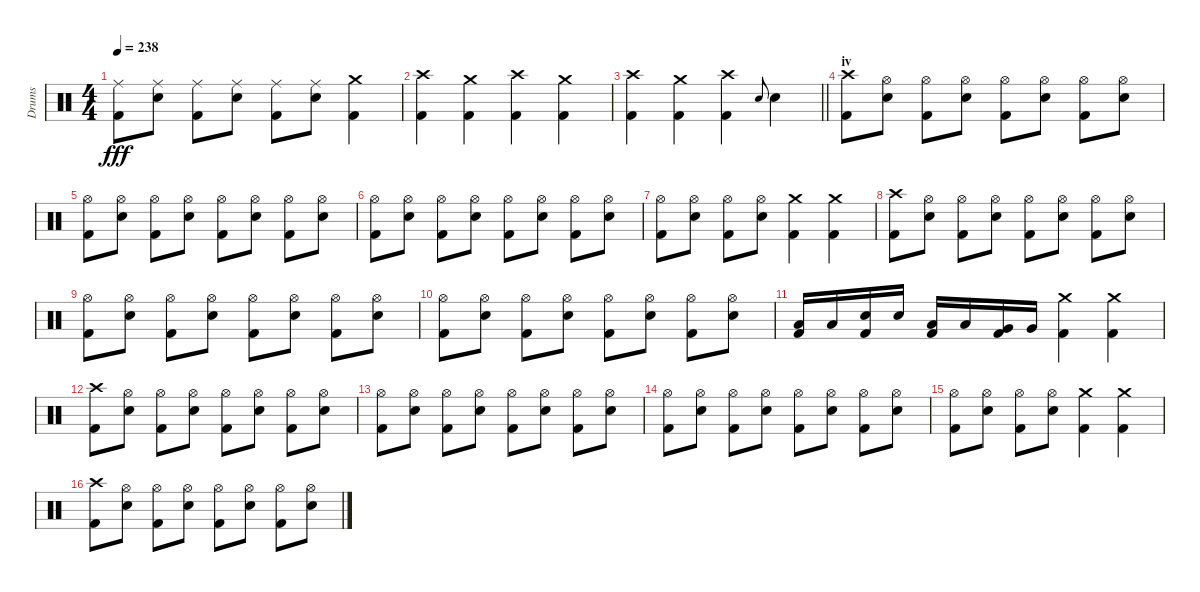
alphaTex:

\track ("Drums" "Drums") {instrument percussion}
\staff {score}
\articulation defaults
\ts (4 4)
\tempo 238
\clef neutral
\ks c
("Ride (middle)" "Kick (hit) 2").8{dy fff} ("Ride (middle)" "Electric Snare (hit)").8 ("Ride (middle)" "Kick (hit) 2").8 ("Ride (middle)" "Electric Snare (hit)").8 ("Ride (middle)" "Kick (hit) 2").8 ("Ride (middle)" "Electric Snare (hit)").8 ("Crash medium (hit)" "Kick (hit) 2").4 |
("Crash high (hit)" "Kick (hit) 2").4 ("Crash medium (hit)" "Kick (hit) 2").4 ("Crash high (hit)" "Kick (hit) 2").4 ("Crash medium (hit)" "Kick (hit) 2").4 |
\barLineRight lightlight
("Crash high (hit)" "Kick (hit) 2").4 ("Crash medium (hit)" "Kick (hit) 2").4 ("Crash high (hit)" "Kick (hit) 2").4 "Electric Snare (hit)".8{gr onbeat} "Electric Snare (hit)".4 |
\section ("" "iv")
("Crash high (hit)" "Kick (hit) 2").8 ("Hi-Hat (open)" "Electric Snare (hit)").8 ("Hi-Hat (open)" "Kick (hit) 2").8 ("Hi-Hat (open)" "Electric Snare (hit)").8 ("Hi-Hat (open)" "Kick (hit) 2").8 ("Hi-Hat (open)" "Electric Snare (hit)").8 ("Hi-Hat (open)" "Kick (hit) 2").8 ("Hi-Hat (open)" "Electric Snare (hit)").8 |
("Hi-Hat (open)" "Kick (hit) 2").8 ("Hi-Hat (open)" "Electric Snare (hit)").8 ("Hi-Hat (open)" "Kick (hit) 2").8 ("Hi-Hat (open)" "Electric Snare (hit)").8 ("Hi-Hat (open)" "Kick (hit) 2").8 ("Hi-Hat (open)" "Electric Snare (hit)").8 ("Hi-Hat (open)" "Kick (hit) 2").8 ("Hi-Hat (open)" "Electric Snare (hit)").8 |
("Hi-Hat (open)" "Kick (hit) 2").8 ("Hi-Hat (open)" "Electric Snare (hit)").8 ("Hi-Hat (open)" "Kick (hit) 2").8 ("Hi-Hat (open)" "Electric Snare (hit)").8 ("Hi-Hat (open)" "Kick (hit) 2").8 ("Hi-Hat (open)" "Electric Snare (hit)").8 ("Hi-Hat (open)" "Kick (hit) 2").8 ("Hi-Hat (open)" "Electric Snare (hit)").8 |
("Hi-Hat (open)" "Kick (hit) 2").8 ("Hi-Hat (open)" "Electric Snare (hit)").8 ("Hi-Hat (open)" "Kick (hit) 2").8 ("Hi-Hat (open)" "Electric Snare (hit)").8 ("Crash medium (hit)" "Kick (hit) 2").4 ("Crash medium (hit)" "Kick (hit) 2").4 |
("Crash high (hit)" "Kick (hit) 2").8 ("Hi-Hat (open)" "Electric Snare (hit)").8 ("Hi-Hat (open)" "Kick (hit) 2").8 ("Hi-Hat (open)" "Electric Snare (hit)").8 ("Hi-Hat (open)" "Kick (hit) 2").8 ("Hi-Hat (open)" "Electric Snare (hit)").8 ("Hi-Hat (open)" "Kick (hit) 2").8 ("Hi-Hat (open)" "Electric Snare (hit)").8 |
("Hi-Hat (open)" "Kick (hit) 2").8 ("Hi-Hat (open)" "Electric Snare (hit)").8 ("Hi-Hat (open)" "Kick (hit) 2").8 ("Hi-Hat (open)" "Electric Snare (hit)").8 ("Hi-Hat (open)" "Kick (hit) 2").8 ("Hi-Hat (open)" "Electric Snare (hit)").8 ("Hi-Hat (open)" "Kick (hit) 2").8 ("Hi-Hat (open)" "Electric Snare (hit)").8 |
("Hi-Hat (open)" "Kick (hit) 2").8 ("Hi-Hat (open)" "Electric Snare (hit)").8 ("Hi-Hat (open)" "Kick (hit) 2").8 ("Hi-Hat (open)" "Electric Snare (hit)").8 ("Hi-Hat (open)" "Kick (hit) 2").8 ("Hi-Hat (open)" "Electric Snare (hit)").8 ("Hi-Hat (open)" "Kick (hit) 2").8 ("Hi-Hat (open)" "Electric Snare (hit)").8 |
("Low Tom (hit)" "Kick (hit) 2").16 "Low Tom (hit)".16 ("Electric Snare (hit)" "Kick (hit) 2").16 "Electric Snare (hit)".16 ("Low Tom (hit)" "Kick (hit) 2").16 "Low Tom (hit)".16 ("Very Low Tom (hit)" "Kick (hit) 2").16 "Very Low Tom (hit)".16 ("Crash medium (hit)" "Kick (hit) 2").4 ("Crash medium (hit)" "Kick (hit) 2").4 |
("Crash high (hit)" "Kick (hit) 2").8 ("Hi-Hat (open)" "Electric Snare (hit)").8 ("Hi-Hat (open)" "Kick (hit) 2").8 ("Hi-Hat (open)" "Electric Snare (hit)").8 ("Hi-Hat (open)" "Kick (hit) 2").8 ("Hi-Hat (open)" "Electric Snare (hit)").8 ("Hi-Hat (open)" "Kick (hit) 2").8 ("Hi-Hat (open)" "Electric Snare (hit)").8 |
("Hi-Hat (open)" "Kick (hit) 2").8 ("Hi-Hat (open)" "Electric Snare (hit)").8 ("Hi-Hat (open)" "Kick (hit) 2").8 ("Hi-Hat (open)" "Electric Snare (hit)").8 ("Hi-Hat (open)" "Kick (hit) 2").8 ("Hi-Hat (open)" "Electric Snare (hit)").8 ("Hi-Hat (open)" "Kick (hit) 2").8 ("Hi-Hat (open)" "Electric Snare (hit)").8 |
("Hi-Hat (open)" "Kick (hit) 2").8 ("Hi-Hat (open)" "Electric Snare (hit)").8 ("Hi-Hat (open)" "Kick (hit) 2").8 ("Hi-Hat (open)" "Electric Snare (hit)").8 ("Hi-Hat (open)" "Kick (hit) 2").8 ("Hi-Hat (open)" "Electric Snare (hit)").8 ("Hi-Hat (open)" "Kick (hit) 2").8 ("Hi-Hat (open)" "Electric Snare (hit)").8 |
("Hi-Hat (open)" "Kick (hit) 2").8 ("Hi-Hat (open)" "Electric Snare (hit)").8 ("Hi-Hat (open)" "Kick (hit) 2").8 ("Hi-Hat (open)" "Electric Snare (hit)").8 ("Crash medium (hit)" "Kick (hit) 2").4 ("Crash medium (hit)" "Kick (hit) 2").4 |
("Crash high (hit)" "Kick (hit) 2").8 ("Hi-Hat (open)" "Electric Snare (hit)").8 ("Hi-Hat (open)" "Kick (hit) 2").8 ("Hi-Hat (open)" "Electric Snare (hit)").8 ("Hi-Hat (open)" "Kick (hit) 2").8 ("Hi-Hat (open)" "Electric Snare (hit)").8 ("Hi-Hat (open)" "Kick (hit) 2").8 ("Hi-Hat (open)" "Electric Snare (hit)").8
